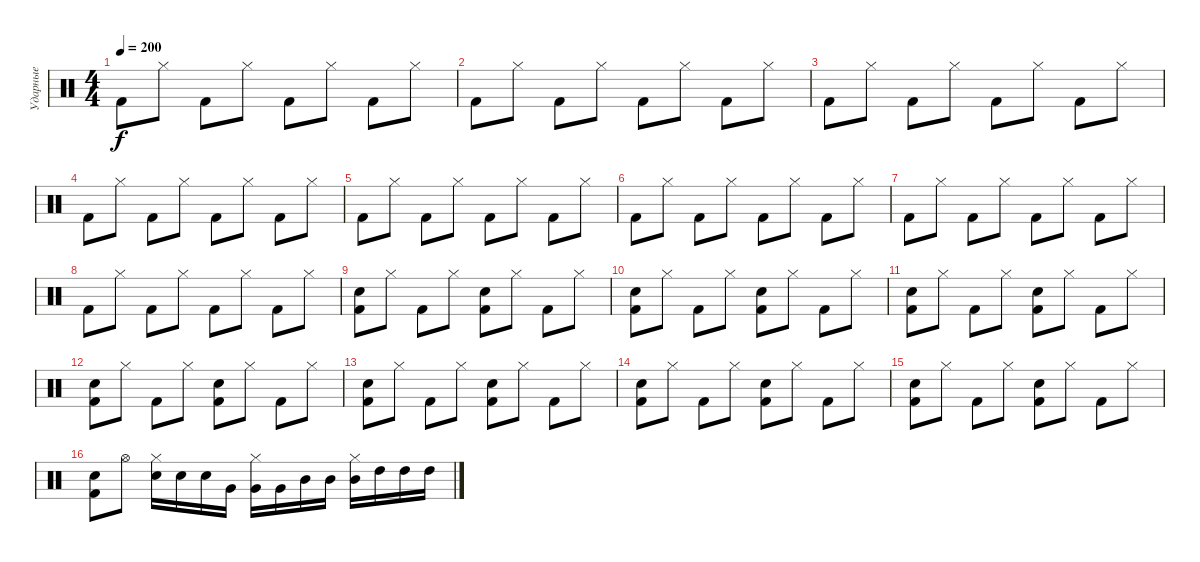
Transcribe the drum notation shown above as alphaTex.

\track ("Ударные" "Ударные") {instrument percussion}
\staff {score}
\articulation defaults
\ts (4 4)
\tempo 200
\clef neutral
\ks c "Kick (hit) 2".8{dy f} "Hi-Hat (closed)".8 "Kick (hit) 2".8 "Hi-Hat (closed)".8 "Kick (hit) 2".8 "Hi-Hat (closed)".8 "Kick (hit) 2".8 "Hi-Hat (closed)".8
|
"Kick (hit) 2".8 "Hi-Hat (closed)".8 "Kick (hit) 2".8 "Hi-Hat (closed)".8 "Kick (hit) 2".8 "Hi-Hat (closed)".8 "Kick (hit) 2".8 "Hi-Hat (closed)".8 |
"Kick (hit) 2".8 "Hi-Hat (closed)".8 "Kick (hit) 2".8 "Hi-Hat (closed)".8 "Kick (hit) 2".8 "Hi-Hat (closed)".8 "Kick (hit) 2".8 "Hi-Hat (closed)".8 |
"Kick (hit) 2".8 "Hi-Hat (closed)".8 "Kick (hit) 2".8 "Hi-Hat (closed)".8 "Kick (hit) 2".8 "Hi-Hat (closed)".8 "Kick (hit) 2".8 "Hi-Hat (closed)".8 |
"Kick (hit) 2".8 "Hi-Hat (closed)".8 "Kick (hit) 2".8 "Hi-Hat (closed)".8 "Kick (hit) 2".8 "Hi-Hat (closed)".8 "Kick (hit) 2".8 "Hi-Hat (closed)".8 |
"Kick (hit) 2".8 "Hi-Hat (closed)".8 "Kick (hit) 2".8 "Hi-Hat (closed)".8 "Kick (hit) 2".8 "Hi-Hat (closed)".8 "Kick (hit) 2".8 "Hi-Hat (closed)".8 |
"Kick (hit) 2".8 "Hi-Hat (closed)".8 "Kick (hit) 2".8 "Hi-Hat (closed)".8 "Kick (hit) 2".8 "Hi-Hat (closed)".8 "Kick (hit) 2".8 "Hi-Hat (closed)".8 |
"Kick (hit) 2".8 "Hi-Hat (closed)".8 "Kick (hit) 2".8 "Hi-Hat (closed)".8 "Kick (hit) 2".8 "Hi-Hat (closed)".8 "Kick (hit) 2".8 "Hi-Hat (closed)".8 |
("Snare (hit) 2" "Kick (hit) 2").8 "Hi-Hat (closed)".8 "Kick (hit) 2".8 "Hi-Hat (closed)".8 ("Kick (hit) 2" "Snare (hit) 2").8 "Hi-Hat (closed)".8 "Kick (hit) 2".8 "Hi-Hat (closed)".8 |
("Snare (hit) 2" "Kick (hit) 2").8 "Hi-Hat (closed)".8 "Kick (hit) 2".8 "Hi-Hat (closed)".8 ("Kick (hit) 2" "Snare (hit) 2").8 "Hi-Hat (closed)".8 "Kick (hit) 2".8 "Hi-Hat (closed)".8 |
("Snare (hit) 2" "Kick (hit) 2").8 "Hi-Hat (closed)".8 "Kick (hit) 2".8 "Hi-Hat (closed)".8 ("Kick (hit) 2" "Snare (hit) 2").8 "Hi-Hat (closed)".8 "Kick (hit) 2".8 "Hi-Hat (closed)".8 |
("Snare (hit) 2" "Kick (hit) 2").8 "Hi-Hat (closed)".8 "Kick (hit) 2".8 "Hi-Hat (closed)".8 ("Kick (hit) 2" "Snare (hit) 2").8 "Hi-Hat (closed)".8 "Kick (hit) 2".8 "Hi-Hat (closed)".8 |
("Snare (hit) 2" "Kick (hit) 2").8 "Hi-Hat (closed)".8 "Kick (hit) 2".8 "Hi-Hat (closed)".8 ("Kick (hit) 2" "Snare (hit) 2").8 "Hi-Hat (closed)".8 "Kick (hit) 2".8 "Hi-Hat (closed)".8 |
("Snare (hit) 2" "Kick (hit) 2").8 "Hi-Hat (closed)".8 "Kick (hit) 2".8 "Hi-Hat (closed)".8 ("Kick (hit) 2" "Snare (hit) 2").8 "Hi-Hat (closed)".8 "Kick (hit) 2".8 "Hi-Hat (closed)".8 |
("Snare (hit) 2" "Kick (hit) 2").8 "Hi-Hat (closed)".8 "Kick (hit) 2".8 "Hi-Hat (closed)".8 ("Kick (hit) 2" "Snare (hit) 2").8 "Hi-Hat (closed)".8 "Kick (hit) 2".8 "Hi-Hat (closed)".8 |
("Snare (hit) 2" "Kick (hit) 2").8 "Hi-Hat (open)".8 ("Electric Snare (hit)" "Hi-Hat (closed)").16 "Electric Snare (hit)".16 "Electric Snare (hit)".16 "Very Low Tom (hit)".16 ("Very Low Tom (hit)" "Hi-Hat (closed)").16 "Very Low Tom (hit)".16 "Mid Tom (hit)".16 "Mid Tom (hit)".16 ("Mid Tom (hit)" "Hi-Hat (closed)").16 "High Tom (hit)".16 "High Tom (hit)".16 "High Tom (hit)".16
